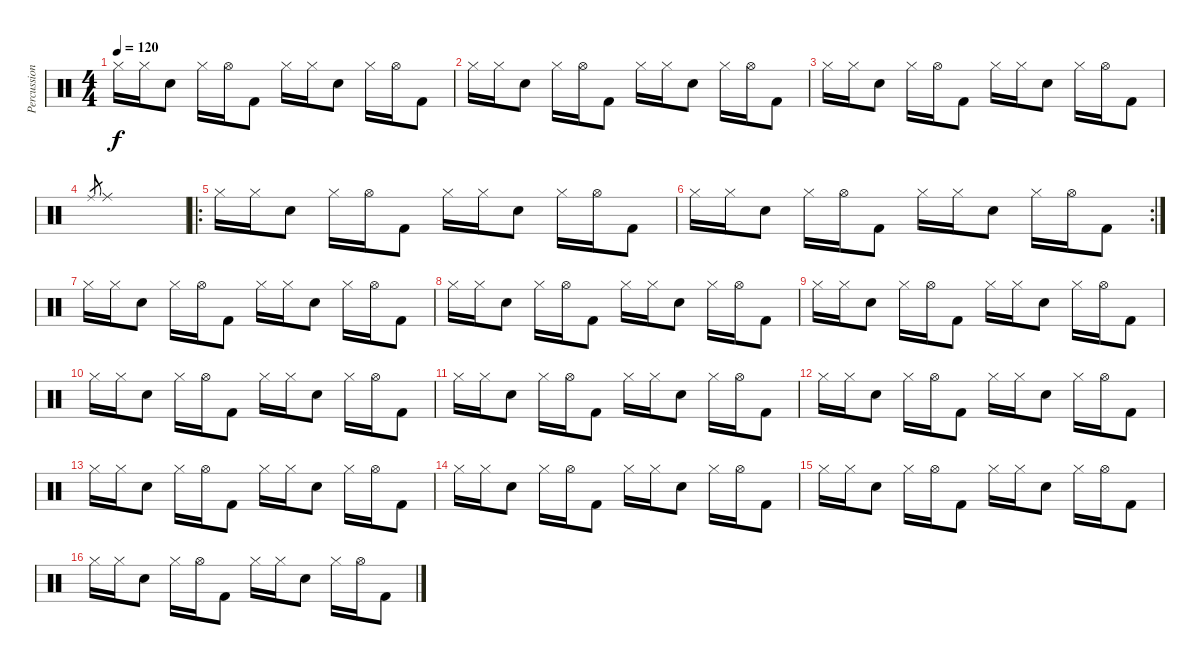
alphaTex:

\track ("Percussions" "Percussion") {instrument percussion}
\staff {score}
\articulation defaults
\ts (4 4)
\tempo 120
\clef neutral
\ks c "Hi-Hat (closed)".16{dy f} "Hi-Hat (closed)".16 "Snare (hit) 2".8 "Hi-Hat (closed)".16 "Hi-Hat (open)".16 "Kick (hit) 2".8 "Hi-Hat (closed)".16 "Hi-Hat (closed)".16 "Snare (hit) 2".8 "Hi-Hat (closed)".16 "Hi-Hat (open)".16 "Kick (hit) 2".8
|
"Hi-Hat (closed)".16 "Hi-Hat (closed)".16 "Snare (hit) 2".8 "Hi-Hat (closed)".16 "Hi-Hat (open)".16 "Kick (hit) 2".8 "Hi-Hat (closed)".16 "Hi-Hat (closed)".16 "Snare (hit) 2".8 "Hi-Hat (closed)".16 "Hi-Hat (open)".16 "Kick (hit) 2".8 |
"Hi-Hat (closed)".16 "Hi-Hat (closed)".16 "Snare (hit) 2".8 "Hi-Hat (closed)".16 "Hi-Hat (open)".16 "Kick (hit) 2".8 "Hi-Hat (closed)".16 "Hi-Hat (closed)".16 "Snare (hit) 2".8 "Hi-Hat (closed)".16 "Hi-Hat (open)".16 "Kick (hit) 2".8 |
"Ride (middle)".8{gr} "Ride (middle)".1 |
\ro "Hi-Hat (closed)".16 "Hi-Hat (closed)".16 "Snare (hit) 2".8 "Hi-Hat (closed)".16 "Hi-Hat (open)".16 "Kick (hit) 2".8 "Hi-Hat (closed)".16 "Hi-Hat (closed)".16 "Snare (hit) 2".8 "Hi-Hat (closed)".16 "Hi-Hat (open)".16 "Kick (hit) 2".8
|
\rc 2 "Hi-Hat (closed)".16 "Hi-Hat (closed)".16 "Snare (hit) 2".8 "Hi-Hat (closed)".16 "Hi-Hat (open)".16 "Kick (hit) 2".8 "Hi-Hat (closed)".16 "Hi-Hat (closed)".16 "Snare (hit) 2".8 "Hi-Hat (closed)".16 "Hi-Hat (open)".16 "Kick (hit) 2".8
|
"Hi-Hat (closed)".16 "Hi-Hat (closed)".16 "Snare (hit) 2".8 "Hi-Hat (closed)".16 "Hi-Hat (open)".16 "Kick (hit) 2".8 "Hi-Hat (closed)".16 "Hi-Hat (closed)".16 "Snare (hit) 2".8 "Hi-Hat (closed)".16 "Hi-Hat (open)".16 "Kick (hit) 2".8 |
"Hi-Hat (closed)".16 "Hi-Hat (closed)".16 "Snare (hit) 2".8 "Hi-Hat (closed)".16 "Hi-Hat (open)".16 "Kick (hit) 2".8 "Hi-Hat (closed)".16 "Hi-Hat (closed)".16 "Snare (hit) 2".8 "Hi-Hat (closed)".16 "Hi-Hat (open)".16 "Kick (hit) 2".8 |
"Hi-Hat (closed)".16 "Hi-Hat (closed)".16 "Snare (hit) 2".8 "Hi-Hat (closed)".16 "Hi-Hat (open)".16 "Kick (hit) 2".8 "Hi-Hat (closed)".16 "Hi-Hat (closed)".16 "Snare (hit) 2".8 "Hi-Hat (closed)".16 "Hi-Hat (open)".16 "Kick (hit) 2".8 |
"Hi-Hat (closed)".16 "Hi-Hat (closed)".16 "Snare (hit) 2".8 "Hi-Hat (closed)".16 "Hi-Hat (open)".16 "Kick (hit) 2".8 "Hi-Hat (closed)".16 "Hi-Hat (closed)".16 "Snare (hit) 2".8 "Hi-Hat (closed)".16 "Hi-Hat (open)".16 "Kick (hit) 2".8 |
"Hi-Hat (closed)".16 "Hi-Hat (closed)".16 "Snare (hit) 2".8 "Hi-Hat (closed)".16 "Hi-Hat (open)".16 "Kick (hit) 2".8 "Hi-Hat (closed)".16 "Hi-Hat (closed)".16 "Snare (hit) 2".8 "Hi-Hat (closed)".16 "Hi-Hat (open)".16 "Kick (hit) 2".8 |
"Hi-Hat (closed)".16 "Hi-Hat (closed)".16 "Snare (hit) 2".8 "Hi-Hat (closed)".16 "Hi-Hat (open)".16 "Kick (hit) 2".8 "Hi-Hat (closed)".16 "Hi-Hat (closed)".16 "Snare (hit) 2".8 "Hi-Hat (closed)".16 "Hi-Hat (open)".16 "Kick (hit) 2".8 |
"Hi-Hat (closed)".16 "Hi-Hat (closed)".16 "Snare (hit) 2".8 "Hi-Hat (closed)".16 "Hi-Hat (open)".16 "Kick (hit) 2".8 "Hi-Hat (closed)".16 "Hi-Hat (closed)".16 "Snare (hit) 2".8 "Hi-Hat (closed)".16 "Hi-Hat (open)".16 "Kick (hit) 2".8 |
"Hi-Hat (closed)".16 "Hi-Hat (closed)".16 "Snare (hit) 2".8 "Hi-Hat (closed)".16 "Hi-Hat (open)".16 "Kick (hit) 2".8 "Hi-Hat (closed)".16 "Hi-Hat (closed)".16 "Snare (hit) 2".8 "Hi-Hat (closed)".16 "Hi-Hat (open)".16 "Kick (hit) 2".8 |
"Hi-Hat (closed)".16 "Hi-Hat (closed)".16 "Snare (hit) 2".8 "Hi-Hat (closed)".16 "Hi-Hat (open)".16 "Kick (hit) 2".8 "Hi-Hat (closed)".16 "Hi-Hat (closed)".16 "Snare (hit) 2".8 "Hi-Hat (closed)".16 "Hi-Hat (open)".16 "Kick (hit) 2".8 |
"Hi-Hat (closed)".16 "Hi-Hat (closed)".16 "Snare (hit) 2".8 "Hi-Hat (closed)".16 "Hi-Hat (open)".16 "Kick (hit) 2".8 "Hi-Hat (closed)".16 "Hi-Hat (closed)".16 "Snare (hit) 2".8 "Hi-Hat (closed)".16 "Hi-Hat (open)".16 "Kick (hit) 2".8
